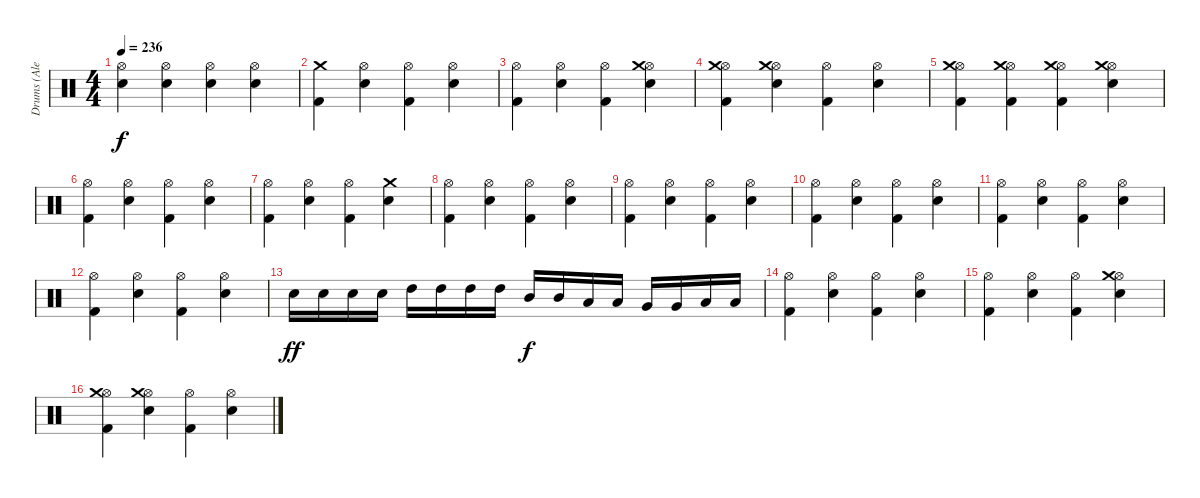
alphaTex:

\track ("Drums (Alex Van Halen)" "Drums (Ale") {instrument percussion}
\staff {score}
\articulation defaults
\ts (4 4)
\tempo 236
\clef neutral
\ks c
("Hi-Hat (open)" "Snare (hit) 2").4{dy f} ("Hi-Hat (open)" "Snare (hit) 2").4 ("Hi-Hat (open)" "Snare (hit) 2").4 ("Hi-Hat (open)" "Snare (hit) 2").4 |
("Crash medium (hit)" "Kick (hit) 2").4 ("Hi-Hat (open)" "Snare (hit) 2").4 ("Hi-Hat (open)" "Kick (hit) 2").4 ("Hi-Hat (open)" "Snare (hit) 2").4 |
("Hi-Hat (open)" "Kick (hit) 2").4 ("Hi-Hat (open)" "Snare (hit) 2").4 ("Hi-Hat (open)" "Kick (hit) 2").4 ("Hi-Hat (open)" "Crash medium (hit)" "Snare (hit) 2").4 |
("Hi-Hat (open)" "Crash medium (hit)" "Kick (hit) 2").4 ("Hi-Hat (open)" "Crash medium (hit)" "Snare (hit) 2").4 ("Hi-Hat (open)" "Kick (hit) 2").4 ("Hi-Hat (open)" "Snare (hit) 2").4 |
("Hi-Hat (open)" "Crash medium (hit)" "Kick (hit) 2").4 ("Hi-Hat (open)" "Crash medium (hit)" "Kick (hit) 2").4 ("Hi-Hat (open)" "Crash medium (hit)" "Kick (hit) 2").4 ("Hi-Hat (open)" "Crash medium (hit)" "Snare (hit) 2").4 |
("Hi-Hat (open)" "Kick (hit) 2").4 ("Hi-Hat (open)" "Snare (hit) 2").4 ("Hi-Hat (open)" "Kick (hit) 2").4 ("Hi-Hat (open)" "Snare (hit) 2").4 |
("Hi-Hat (open)" "Kick (hit) 2").4 ("Hi-Hat (open)" "Snare (hit) 2").4 ("Hi-Hat (open)" "Kick (hit) 2").4 ("Crash medium (hit)" "Snare (hit) 2").4 |
("Hi-Hat (open)" "Kick (hit) 2").4 ("Hi-Hat (open)" "Snare (hit) 2").4 ("Hi-Hat (open)" "Kick (hit) 2").4 ("Hi-Hat (open)" "Snare (hit) 2").4 |
("Hi-Hat (open)" "Kick (hit) 2").4 ("Hi-Hat (open)" "Snare (hit) 2").4 ("Hi-Hat (open)" "Kick (hit) 2").4 ("Hi-Hat (open)" "Snare (hit) 2").4 |
("Hi-Hat (open)" "Kick (hit) 2").4 ("Hi-Hat (open)" "Snare (hit) 2").4 ("Hi-Hat (open)" "Kick (hit) 2").4 ("Hi-Hat (open)" "Snare (hit) 2").4 |
("Hi-Hat (open)" "Kick (hit) 2").4 ("Hi-Hat (open)" "Snare (hit) 2").4 ("Hi-Hat (open)" "Kick (hit) 2").4 ("Hi-Hat (open)" "Snare (hit) 2").4 |
("Hi-Hat (open)" "Kick (hit) 2").4 ("Hi-Hat (open)" "Snare (hit) 2").4 ("Hi-Hat (open)" "Kick (hit) 2").4 ("Hi-Hat (open)" "Snare (hit) 2").4 |
"Snare (hit) 2".16{dy ff} "Snare (hit) 2".16 "Snare (hit) 2".16 "Snare (hit) 2".16 "High Tom (hit)".16 "High Tom (hit)".16 "High Tom (hit)".16 "High Tom (hit)".16 "Mid Tom (hit)".16{dy f} "Mid Tom (hit)".16 "Low Tom (hit)".16 "Low Tom (hit)".16 "Very Low Tom (hit)".16 "Very Low Tom (hit)".16 "Low Floor Tom (hit)".16 "Low Floor Tom (hit)".16 |
("Hi-Hat (open)" "Kick (hit) 2").4 ("Hi-Hat (open)" "Snare (hit) 2").4 ("Hi-Hat (open)" "Kick (hit) 2").4 ("Hi-Hat (open)" "Snare (hit) 2").4 |
("Hi-Hat (open)" "Kick (hit) 2").4 ("Hi-Hat (open)" "Snare (hit) 2").4 ("Hi-Hat (open)" "Kick (hit) 2").4 ("Hi-Hat (open)" "Crash medium (hit)" "Snare (hit) 2").4 |
("Hi-Hat (open)" "Crash medium (hit)" "Kick (hit) 2").4 ("Hi-Hat (open)" "Crash medium (hit)" "Snare (hit) 2").4 ("Hi-Hat (open)" "Kick (hit) 2").4 ("Hi-Hat (open)" "Snare (hit) 2").4
